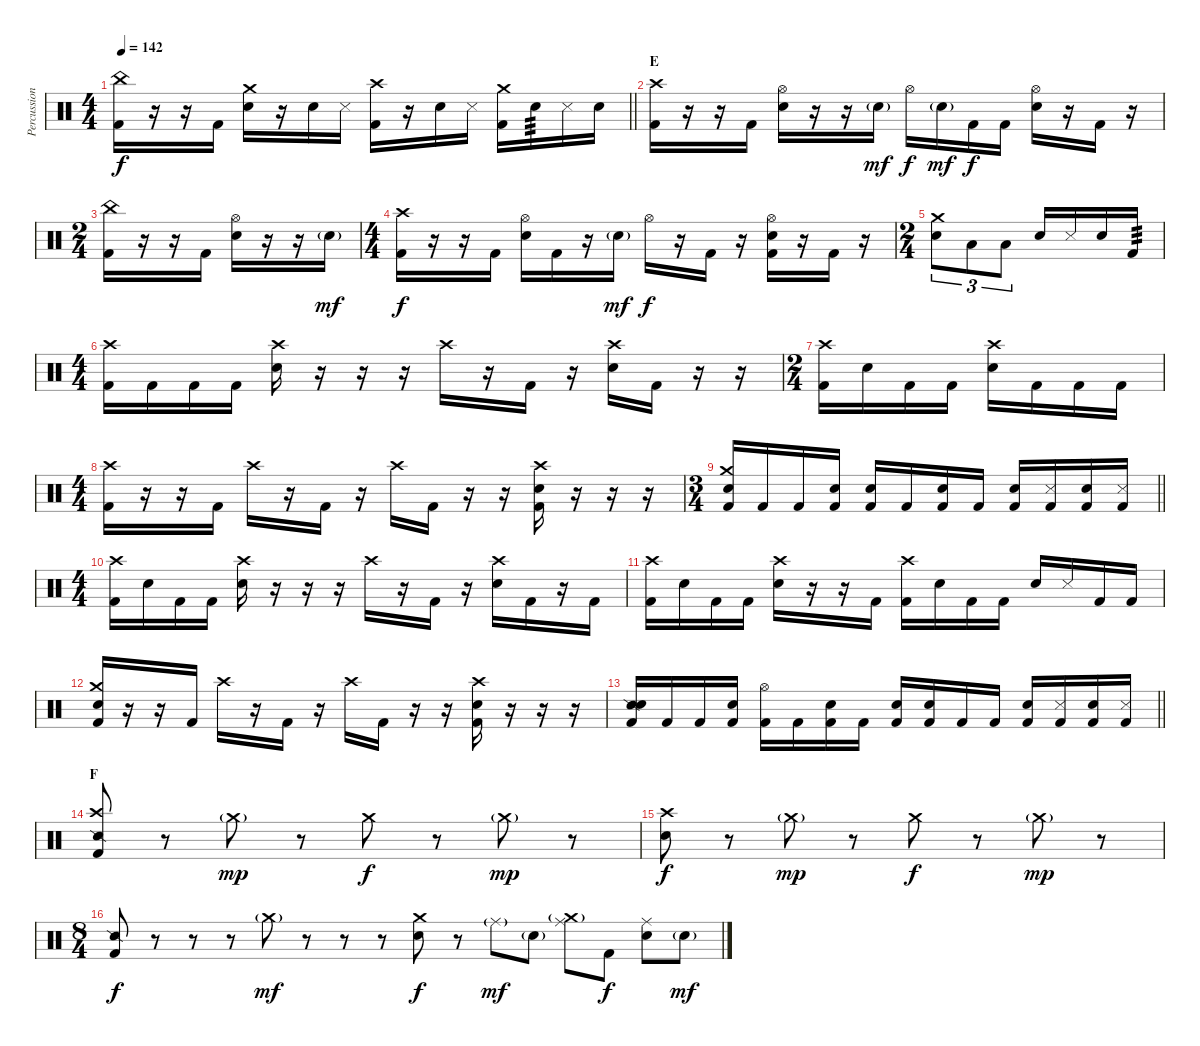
\track ("Percussion" "Percussion") {instrument percussion}
\staff {score}
\articulation defaults
\ts (4 4)
\tempo 142
\clef neutral
\barLineRight lightlight
\ks c
("China (hit)" "Kick (hit) 2").16{dy f} r.16 r.16 "Kick (hit) 2".16 ("Crash medium (hit)" "Snare (hit) 2").16 r.16 "Snare (hit) 2".16 "Metronome (hit)".16 ("Crash high (hit)" "Kick (hit) 2").16 r.16 "Snare (hit) 2".16 "Metronome (hit)".16 ("Crash medium (hit)" "Kick (hit) 2").16 "Snare (hit) 2".16{tp 3} "Metronome (hit)".16 "Snare (hit) 2".16 |
\section ("" "E")
("Crash high (hit)" "Kick (hit) 2").16 r.16 r.16 "Kick (hit) 2".16 ("Hi-Hat (open)" "Snare (hit) 2").16 r.16 r.16 "Snare (hit) 2"{g}.16{dy mf} "Hi-Hat (open)".16{dy f} "Snare (hit) 2"{g}.16{dy mf} "Kick (hit) 2".16{dy f} "Kick (hit) 2".16 ("Hi-Hat (open)" "Snare (hit) 2").16 r.16 "Kick (hit) 2".16 r.16 |
\ts (2 4)
("China (hit)" "Kick (hit) 2").16 r.16 r.16 "Kick (hit) 2".16 ("Hi-Hat (open)" "Snare (hit) 2").16 r.16 r.16 "Snare (hit) 2"{g}.16{dy mf} |
\ts (4 4)
("Crash high (hit)" "Kick (hit) 2").16{dy f} r.16 r.16 "Kick (hit) 2".16 ("Hi-Hat (open)" "Snare (hit) 2").16 "Kick (hit) 2".16 r.16 "Snare (hit) 2"{g}.16{dy mf} "Hi-Hat (open)".16{dy f} r.16 "Kick (hit) 2".16 r.16 ("Hi-Hat (open)" "Snare (hit) 2" "Kick (hit) 2").16 r.16 "Kick (hit) 2".16 r.16 |
\ts (2 4)
("Crash medium (hit)" "Snare (hit) 2").8{tu (3 2)} "Low Tom (hit)".8{tu (3 2)} "Low Tom (hit)".8{tu (3 2)} "Snare (hit) 2".16 "Metronome (hit)".16 "Snare (hit) 2".16 "Kick (hit) 2".16{tp 3} |
\ts (4 4)
("Crash high (hit)" "Kick (hit) 2").16 "Kick (hit) 2".16 "Kick (hit) 2".16 "Kick (hit) 2".16 ("Crash high (hit)" "Snare (hit) 2").16 r.16 r.16 r.16 "Crash high (hit)".16 r.16 "Kick (hit) 2".16 r.16 ("Crash high (hit)" "Snare (hit) 2").16 "Kick (hit) 2".16 r.16 r.16 |
\ts (2 4)
("Crash high (hit)" "Kick (hit) 2").16 "Snare (hit) 2".16 "Kick (hit) 2".16 "Kick (hit) 2".16 ("Crash high (hit)" "Snare (hit) 2").16 "Kick (hit) 2".16 "Kick (hit) 2".16 "Kick (hit) 2".16 |
\ts (4 4)
("Crash high (hit)" "Kick (hit) 2").16 r.16 r.16 "Kick (hit) 2".16 "Crash high (hit)".16 r.16 "Kick (hit) 2".16 r.16 "Crash high (hit)".16 "Kick (hit) 2".16 r.16 r.16 ("Crash high (hit)" "Snare (hit) 2" "Kick (hit) 2").16 r.16 r.16 r.16 |
\ts (3 4)
\barLineRight lightlight
("Crash medium (hit)" "Snare (hit) 2" "Kick (hit) 2").16 "Kick (hit) 2".16 "Kick (hit) 2".16 ("Snare (hit) 2" "Kick (hit) 2").16 ("Snare (hit)" "Kick (hit) 2").16 "Kick (hit) 2".16 ("Snare (hit) 2" "Kick (hit) 2").16 "Kick (hit) 2".16 ("Snare (hit) 2" "Kick (hit) 2").16 ("Metronome (hit)" "Kick (hit) 2").16 ("Snare (hit) 2" "Kick (hit) 2").16 ("Metronome (hit)" "Kick (hit) 2").16 |
\ts (4 4)
("Crash high (hit)" "Kick (hit) 2").16 "Snare (hit) 2".16 "Kick (hit) 2".16 "Kick (hit) 2".16 ("Crash high (hit)" "Snare (hit) 2").16 r.16 r.16 r.16 "Crash high (hit)".16 r.16 "Kick (hit) 2".16 r.16 ("Crash high (hit)" "Snare (hit) 2").16 "Kick (hit) 2".16 r.16 "Kick (hit) 2".16 |
("Crash high (hit)" "Kick (hit) 2").16 "Snare (hit) 2".16 "Kick (hit) 2".16 "Kick (hit) 2".16 ("Crash high (hit)" "Snare (hit) 2").16 r.16 r.16 "Kick (hit) 2".16 ("Crash high (hit)" "Kick (hit) 2").16 "Snare (hit) 2".16 "Kick (hit) 2".16 "Kick (hit) 2".16 "Snare (hit) 2".16 "Metronome (hit)".16 "Kick (hit) 2".16 "Kick (hit) 2".16 |
("Crash medium (hit)" "Snare (hit) 2" "Kick (hit) 2").16 r.16 r.16 "Kick (hit) 2".16 "Crash high (hit)".16 r.16 "Kick (hit) 2".16 r.16 "Crash high (hit)".16 "Kick (hit) 2".16 r.16 r.16 ("Crash high (hit)" "Snare (hit) 2" "Kick (hit) 2").16 r.16 r.16 r.16 |
\barLineRight lightlight
("Snare (side stick) 2" "Snare (hit) 2" "Kick (hit) 2").16 "Kick (hit) 2".16 "Kick (hit) 2".16 ("Snare (hit) 2" "Kick (hit) 2").16 ("Hi-Hat (open)" "Kick (hit) 2").16 "Kick (hit) 2".16 ("Snare (hit) 2" "Kick (hit) 2").16 "Kick (hit) 2".16 ("Snare (hit)" "Kick (hit) 2").16 ("Snare (hit) 2" "Kick (hit) 2").16 "Kick (hit) 2".16 "Kick (hit) 2".16 ("Snare (hit) 2" "Kick (hit) 2").16 ("Metronome (hit)" "Kick (hit) 2").16 ("Snare (hit) 2" "Kick (hit) 2").16 ("Metronome (hit)" "Kick (hit) 2").16 |
\section ("" "F")
("Snare (side stick) 2" "Crash high (hit)" "Kick (hit) 2").8 r.8 "Crash medium (hit)"{g}.8{dy mp} r.8 "Crash medium (hit)".8{dy f} r.8 "Crash medium (hit)"{g}.8{dy mp} r.8 |
("Crash high (hit)" "Snare (hit) 2").8{dy f} r.8 "Crash medium (hit)"{g}.8{dy mp} r.8 "Crash medium (hit)".8{dy f} r.8 "Crash medium (hit)"{g}.8{dy mp} r.8 |
\ts (8 4)
("Snare (side stick) 2" "Kick (hit) 2").8{dy f} r.8 r.8 r.8 "Crash medium (hit)"{g}.8{dy mf} r.8 r.8 r.8 ("Crash medium (hit)" "Snare (hit) 2").8{dy f} r.8 "Ride (middle)"{g}.8{dy mf} "Snare (hit) 2"{g}.8 ("Ride (middle)" "Crash medium (hit)"{g}).8 "Kick (hit) 2".8{dy f} ("Ride (middle)" "Snare (hit) 2").8 "Snare (hit) 2"{g}.8{dy mf}
